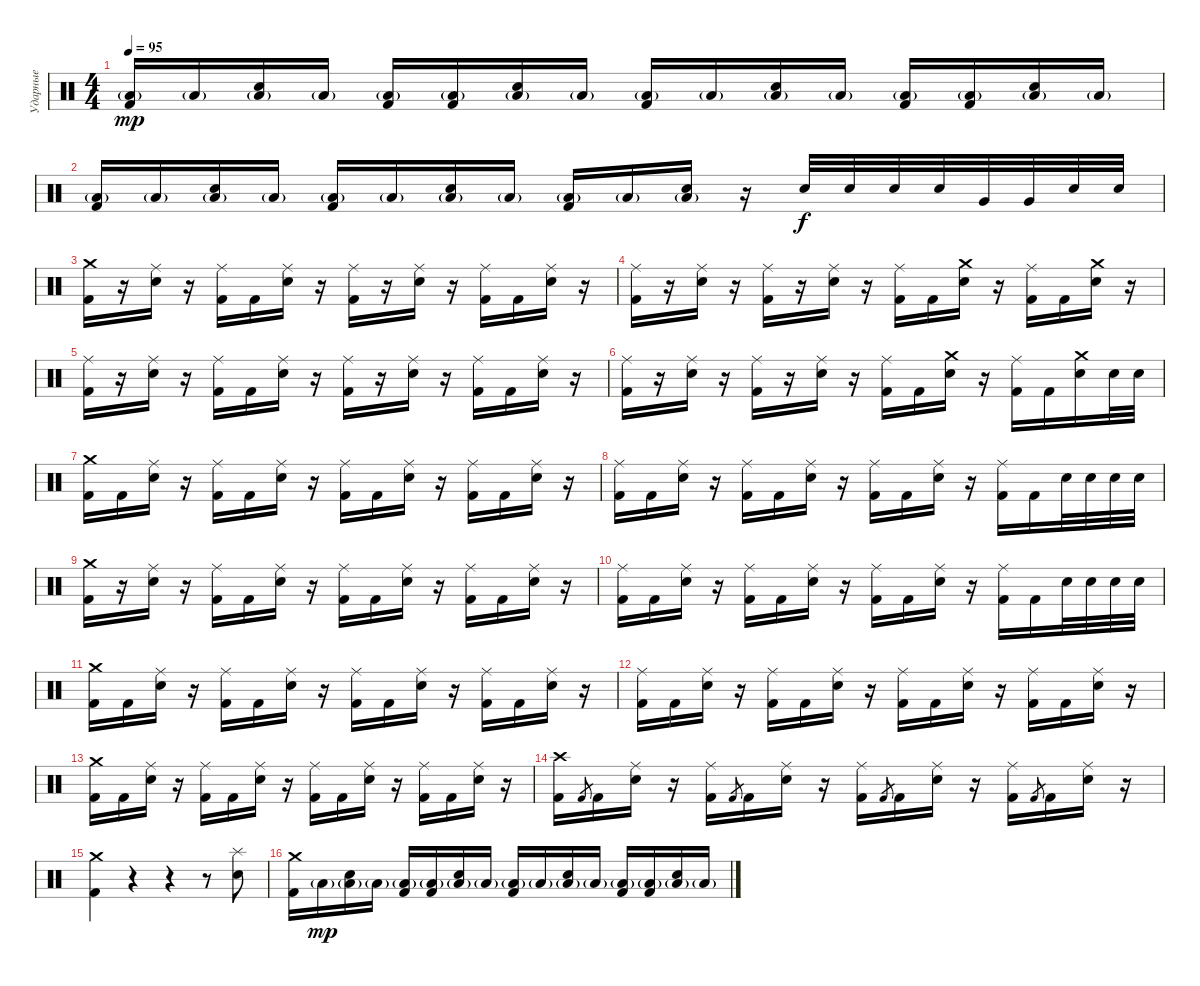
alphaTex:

\track ("Ударные" "Ударные") {instrument percussion}
\staff {score}
\articulation defaults
\ts (4 4)
\tempo 95
\clef neutral
\ks c
("Low Floor Tom (hit)"{g} "Kick (hit) 2").16{dy mp} "Low Floor Tom (hit)"{g}.16 ("Low Floor Tom (hit)"{g} "Electric Snare (hit)").16 "Low Floor Tom (hit)"{g}.16 ("Low Floor Tom (hit)"{g} "Kick (hit) 2").16 ("Low Floor Tom (hit)"{g} "Kick (hit) 2").16 ("Low Floor Tom (hit)"{g} "Electric Snare (hit)").16 "Low Floor Tom (hit)"{g}.16 ("Low Floor Tom (hit)"{g} "Kick (hit) 2").16 "Low Floor Tom (hit)"{g}.16 ("Low Floor Tom (hit)"{g} "Electric Snare (hit)").16 "Low Floor Tom (hit)"{g}.16 ("Low Floor Tom (hit)"{g} "Kick (hit) 2").16 ("Low Floor Tom (hit)"{g} "Kick (hit) 2").16 ("Low Floor Tom (hit)"{g} "Electric Snare (hit)").16 "Low Floor Tom (hit)"{g}.16 |
("Low Floor Tom (hit)"{g} "Kick (hit) 2").16 "Low Floor Tom (hit)"{g}.16 ("Low Floor Tom (hit)"{g} "Electric Snare (hit)").16 "Low Floor Tom (hit)"{g}.16 ("Low Floor Tom (hit)"{g} "Kick (hit) 2").16 "Low Floor Tom (hit)"{g}.16 ("Low Floor Tom (hit)"{g} "Electric Snare (hit)").16 "Low Floor Tom (hit)"{g}.16 ("Low Floor Tom (hit)"{g} "Kick (hit) 2").16 "Low Floor Tom (hit)"{g}.16 ("Low Floor Tom (hit)"{g} "Electric Snare (hit)").16 r.16 "Electric Snare (hit)".32{dy f} "Electric Snare (hit)".32 "Electric Snare (hit)".32 "Electric Snare (hit)".32 "Very Low Tom (hit)".32 "Very Low Tom (hit)".32 "Electric Snare (hit)".32 "Electric Snare (hit)".32 |
("Crash medium (hit)" "Kick (hit) 2").16 r.16 ("Ride (middle)" "Electric Snare (hit)").16 r.16 ("Ride (middle)" "Kick (hit) 2").16 "Kick (hit) 2".16 ("Ride (middle)" "Electric Snare (hit)").16 r.16 ("Ride (middle)" "Kick (hit) 2").16 r.16 ("Ride (middle)" "Electric Snare (hit)").16 r.16 ("Ride (middle)" "Kick (hit) 2").16 "Kick (hit) 2".16 ("Ride (middle)" "Electric Snare (hit)").16 r.16 |
("Ride (middle)" "Kick (hit) 2").16 r.16 ("Ride (middle)" "Electric Snare (hit)").16 r.16 ("Ride (middle)" "Kick (hit) 2").16 r.16 ("Ride (middle)" "Electric Snare (hit)").16 r.16 ("Ride (middle)" "Kick (hit) 2").16 "Kick (hit) 2".16 ("Crash medium (hit)" "Electric Snare (hit)").16 r.16 ("Ride (middle)" "Kick (hit) 2").16 "Kick (hit) 2".16 ("Crash medium (hit)" "Electric Snare (hit)").16 r.16 |
("Ride (middle)" "Kick (hit) 2").16 r.16 ("Ride (middle)" "Electric Snare (hit)").16 r.16 ("Ride (middle)" "Kick (hit) 2").16 "Kick (hit) 2".16 ("Ride (middle)" "Electric Snare (hit)").16 r.16 ("Ride (middle)" "Kick (hit) 2").16 r.16 ("Ride (middle)" "Electric Snare (hit)").16 r.16 ("Ride (middle)" "Kick (hit) 2").16 "Kick (hit) 2".16 ("Ride (middle)" "Electric Snare (hit)").16 r.16 |
("Ride (middle)" "Kick (hit) 2").16 r.16 ("Ride (middle)" "Electric Snare (hit)").16 r.16 ("Ride (middle)" "Kick (hit) 2").16 r.16 ("Ride (middle)" "Electric Snare (hit)").16 r.16 ("Ride (middle)" "Kick (hit) 2").16 "Kick (hit) 2".16 ("Crash medium (hit)" "Electric Snare (hit)").16 r.16 ("Ride (middle)" "Kick (hit) 2").16 "Kick (hit) 2".16 ("Crash medium (hit)" "Electric Snare (hit)").16 "Electric Snare (hit)".32 "Electric Snare (hit)".32 |
("Crash medium (hit)" "Kick (hit) 2").16 "Kick (hit) 2".16 ("Ride (middle)" "Electric Snare (hit)").16 r.16 ("Ride (middle)" "Kick (hit) 2").16 "Kick (hit) 2".16 ("Ride (middle)" "Electric Snare (hit)").16 r.16 ("Ride (middle)" "Kick (hit) 2").16 "Kick (hit) 2".16 ("Ride (middle)" "Electric Snare (hit)").16 r.16 ("Ride (middle)" "Kick (hit) 2").16 "Kick (hit) 2".16 ("Ride (middle)" "Electric Snare (hit)").16 r.16 |
("Ride (middle)" "Kick (hit) 2").16 "Kick (hit) 2".16 ("Ride (middle)" "Electric Snare (hit)").16 r.16 ("Ride (middle)" "Kick (hit) 2").16 "Kick (hit) 2".16 ("Ride (middle)" "Electric Snare (hit)").16 r.16 ("Ride (middle)" "Kick (hit) 2").16 "Kick (hit) 2".16 ("Ride (middle)" "Electric Snare (hit)").16 r.16 ("Ride (middle)" "Kick (hit) 2").16 "Kick (hit) 2".16 "Electric Snare (hit)".32 "Electric Snare (hit)".32 "Electric Snare (hit)".32 "Electric Snare (hit)".32 |
("Crash medium (hit)" "Kick (hit) 2").16 r.16 ("Ride (middle)" "Electric Snare (hit)").16 r.16 ("Ride (middle)" "Kick (hit) 2").16 "Kick (hit) 2".16 ("Ride (middle)" "Electric Snare (hit)").16 r.16 ("Ride (middle)" "Kick (hit) 2").16 "Kick (hit) 2".16 ("Ride (middle)" "Electric Snare (hit)").16 r.16 ("Ride (middle)" "Kick (hit) 2").16 "Kick (hit) 2".16 ("Ride (middle)" "Electric Snare (hit)").16 r.16 |
("Ride (middle)" "Kick (hit) 2").16 "Kick (hit) 2".16 ("Ride (middle)" "Electric Snare (hit)").16 r.16 ("Ride (middle)" "Kick (hit) 2").16 "Kick (hit) 2".16 ("Ride (middle)" "Electric Snare (hit)").16 r.16 ("Ride (middle)" "Kick (hit) 2").16 "Kick (hit) 2".16 ("Ride (middle)" "Electric Snare (hit)").16 r.16 ("Ride (middle)" "Kick (hit) 2").16 "Kick (hit) 2".16 "Electric Snare (hit)".32 "Electric Snare (hit)".32 "Electric Snare (hit)".32 "Electric Snare (hit)".32 |
("Crash medium (hit)" "Kick (hit) 2").16 "Kick (hit) 2".16 ("Ride (middle)" "Electric Snare (hit)").16 r.16 ("Ride (middle)" "Kick (hit) 2").16 "Kick (hit) 2".16 ("Ride (middle)" "Electric Snare (hit)").16 r.16 ("Ride (middle)" "Kick (hit) 2").16 "Kick (hit) 2".16 ("Ride (middle)" "Electric Snare (hit)").16 r.16 ("Ride (middle)" "Kick (hit) 2").16 "Kick (hit) 2".16 ("Ride (middle)" "Electric Snare (hit)").16 r.16 |
("Ride (middle)" "Kick (hit) 2").16 "Kick (hit) 2".16 ("Ride (middle)" "Electric Snare (hit)").16 r.16 ("Ride (middle)" "Kick (hit) 2").16 "Kick (hit) 2".16 ("Ride (middle)" "Electric Snare (hit)").16 r.16 ("Ride (middle)" "Kick (hit) 2").16 "Kick (hit) 2".16 ("Ride (middle)" "Electric Snare (hit)").16 r.16 ("Ride (middle)" "Kick (hit) 2").16 "Kick (hit) 2".16 ("Ride (middle)" "Electric Snare (hit)").16 r.16 |
("Crash medium (hit)" "Kick (hit) 2").16 "Kick (hit) 2".16 ("Ride (middle)" "Electric Snare (hit)").16 r.16 ("Ride (middle)" "Kick (hit) 2").16 "Kick (hit) 2".16 ("Ride (middle)" "Electric Snare (hit)").16 r.16 ("Ride (middle)" "Kick (hit) 2").16 "Kick (hit) 2".16 ("Ride (middle)" "Electric Snare (hit)").16 r.16 ("Ride (middle)" "Kick (hit) 2").16 "Kick (hit) 2".16 ("Ride (middle)" "Electric Snare (hit)").16 r.16 |
("Crash high (hit)" "Kick (hit) 2").16 "Kick (hit) 2".8{gr} "Kick (hit) 2".16 ("Ride (middle)" "Electric Snare (hit)").16 r.16 ("Ride (middle)" "Kick (hit) 2").16 "Kick (hit) 2".8{gr} "Kick (hit) 2".16 ("Ride (middle)" "Electric Snare (hit)").16 r.16 ("Ride (middle)" "Kick (hit) 2").16 "Kick (hit) 2".8{gr} "Kick (hit) 2".16 ("Ride (middle)" "Electric Snare (hit)").16 r.16 ("Ride (middle)" "Kick (hit) 2").16 "Kick (hit) 2".8{gr} "Kick (hit) 2".16 ("Ride (middle)" "Electric Snare (hit)").16 r.16 |
("Crash medium (hit)" "Kick (hit) 2").4 r.4 r.4 r.8 ("Electric Snare (hit)" "Splash (hit)").8 |
("Crash medium (hit)" "Kick (hit) 2").16 "Low Floor Tom (hit)"{g}.16{dy mp} ("Low Floor Tom (hit)"{g} "Electric Snare (hit)").16 "Low Floor Tom (hit)"{g}.16 ("Low Floor Tom (hit)"{g} "Kick (hit) 2").16 ("Low Floor Tom (hit)"{g} "Kick (hit) 2").16 ("Low Floor Tom (hit)"{g} "Electric Snare (hit)").16 "Low Floor Tom (hit)"{g}.16 ("Low Floor Tom (hit)"{g} "Kick (hit) 2").16 "Low Floor Tom (hit)"{g}.16 ("Low Floor Tom (hit)"{g} "Electric Snare (hit)").16 "Low Floor Tom (hit)"{g}.16 ("Low Floor Tom (hit)"{g} "Kick (hit) 2").16 ("Low Floor Tom (hit)"{g} "Kick (hit) 2").16 ("Low Floor Tom (hit)"{g} "Electric Snare (hit)").16 "Low Floor Tom (hit)"{g}.16
